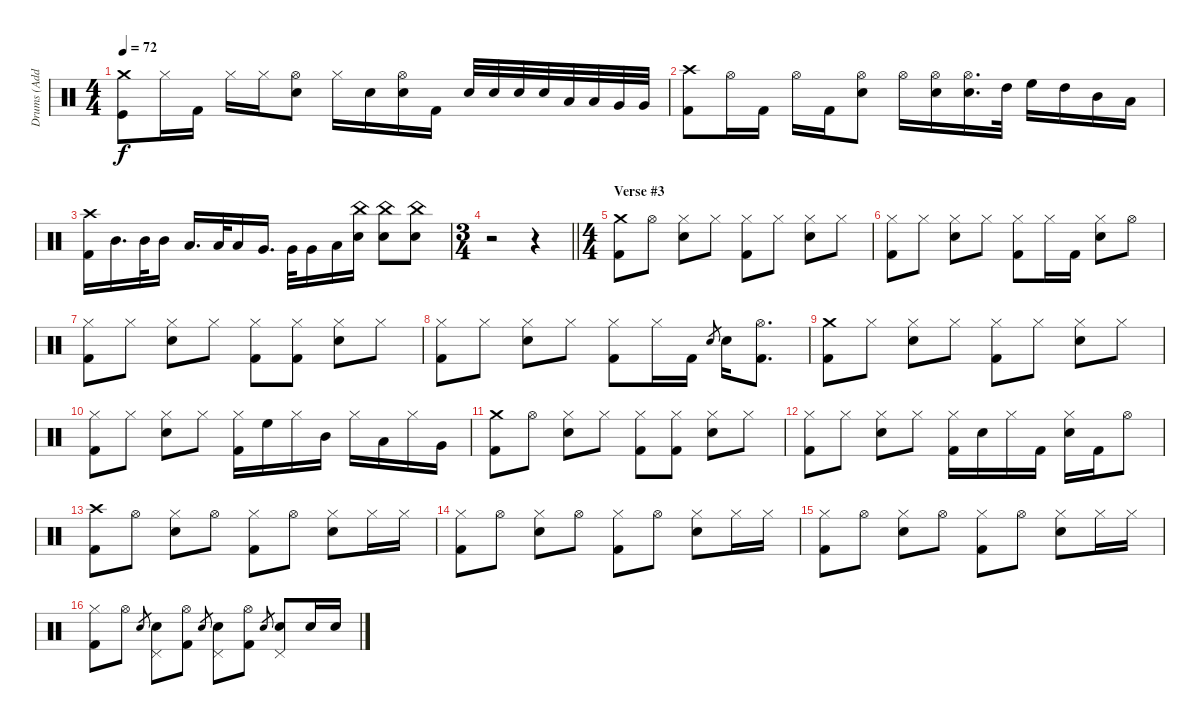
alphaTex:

\track ("Drums (Added by Leonardo_codev)" "Drums (Add") {instrument percussion}
\staff {score}
\articulation defaults
\ts (4 4)
\tempo 72
\clef neutral
\ks c
("Crash medium (hit)" "Kick (hit)").8{dy f} "Hi-Hat (closed)".16 "Kick (hit) 2".16 "Hi-Hat (closed)".16 "Hi-Hat (closed)".16 ("Hi-Hat (open)" "Electric Snare (hit)").8 "Hi-Hat (closed)".16 "Electric Snare (hit)".16 ("Hi-Hat (open)" "Electric Snare (hit)").16 "Kick (hit) 2".16 "Electric Snare (hit)".32 "Electric Snare (hit)".32 "Electric Snare (hit)".32 "Electric Snare (hit)".32 "Low Tom (hit)".32 "Low Tom (hit)".32 "Very Low Tom (hit)".32 "Very Low Tom (hit)".32 |
("Crash high (hit)" "Kick (hit) 2").8 "Hi-Hat (open)".16 "Kick (hit) 2".16 "Hi-Hat (open)".16 "Kick (hit) 2".16 ("Hi-Hat (open)" "Electric Snare (hit)").8 "Hi-Hat (open)".16 ("Hi-Hat (open)" "Electric Snare (hit)").16 ("Hi-Hat (open)" "Electric Snare (hit)").16{d} "High Tom (hit)".32 "High Floor Tom (hit)".16 "High Tom (hit)".16 "Mid Tom (hit)".16 "Low Tom (hit)".16 |
("Crash high (hit)" "Kick (hit) 2").16 "Mid Tom (hit)".16{d} "Mid Tom (hit)".32 "Mid Tom (hit)".16 "Low Tom (hit)".16{d} "Low Tom (hit)".32 "Low Tom (hit)".16 "Very Low Tom (hit)".16{d} "Very Low Tom (hit)".32 "Very Low Tom (hit)".16 "Low Floor Tom (hit)".16 ("China (hit)" "Electric Snare (hit)").16 ("China (hit)" "Electric Snare (hit)").8 ("China (hit)" "Electric Snare (hit)").8 |
\ts (3 4)
\barLineRight lightlight
r.2 r.4 |
\ts (4 4)
\section ("" "Verse #3")
("Crash medium (hit)" "Kick (hit) 2").8 "Hi-Hat (open)".8 ("Hi-Hat (closed)" "Electric Snare (hit)").8 "Hi-Hat (closed)".8 ("Hi-Hat (closed)" "Kick (hit) 2").8 "Hi-Hat (closed)".8 ("Hi-Hat (closed)" "Electric Snare (hit)").8 "Hi-Hat (closed)".8 |
("Hi-Hat (closed)" "Kick (hit) 2").8 "Hi-Hat (closed)".8 ("Hi-Hat (closed)" "Electric Snare (hit)").8 "Hi-Hat (closed)".8 ("Hi-Hat (closed)" "Kick (hit) 2").8 "Hi-Hat (closed)".16 "Kick (hit) 2".16 ("Hi-Hat (closed)" "Electric Snare (hit)").8 "Hi-Hat (open)".8 |
("Hi-Hat (closed)" "Kick (hit) 2").8 "Hi-Hat (closed)".8 ("Hi-Hat (closed)" "Electric Snare (hit)").8 "Hi-Hat (closed)".8 ("Hi-Hat (closed)" "Kick (hit) 2").8 ("Hi-Hat (closed)" "Kick (hit) 2").8 ("Hi-Hat (closed)" "Electric Snare (hit)").8 "Hi-Hat (closed)".8 |
("Hi-Hat (closed)" "Kick (hit) 2").8 "Hi-Hat (closed)".8 ("Hi-Hat (closed)" "Electric Snare (hit)").8 "Hi-Hat (closed)".8 ("Hi-Hat (closed)" "Kick (hit) 2").8 "Hi-Hat (closed)".16 "Kick (hit) 2".16 "Electric Snare (hit)".8{gr} "Electric Snare (hit)".16 ("Hi-Hat (open)" "Kick (hit) 2").8{d} |
("Crash medium (hit)" "Kick (hit) 2").8 "Hi-Hat (closed)".8 ("Hi-Hat (closed)" "Electric Snare (hit)").8 "Hi-Hat (closed)".8 ("Hi-Hat (closed)" "Kick (hit) 2").8 "Hi-Hat (closed)".8 ("Hi-Hat (closed)" "Electric Snare (hit)").8 "Hi-Hat (closed)".8 |
("Hi-Hat (closed)" "Kick (hit) 2").8 "Hi-Hat (closed)".8 ("Hi-Hat (closed)" "Electric Snare (hit)").8 "Hi-Hat (closed)".8 ("Hi-Hat (closed)" "Kick (hit) 2").16 "High Floor Tom (hit)".16 "Hi-Hat (closed)".16 "Mid Tom (hit)".16 "Hi-Hat (closed)".16 "Low Tom (hit)".16 "Hi-Hat (closed)".16 "Very Low Tom (hit)".16 |
("Crash medium (hit)" "Kick (hit) 2").8 "Hi-Hat (open)".8 ("Hi-Hat (closed)" "Electric Snare (hit)").8 "Hi-Hat (closed)".8 ("Hi-Hat (closed)" "Kick (hit) 2").8 ("Hi-Hat (closed)" "Kick (hit) 2").8 ("Hi-Hat (closed)" "Electric Snare (hit)").8 "Hi-Hat (closed)".8 |
("Hi-Hat (closed)" "Kick (hit) 2").8 "Hi-Hat (closed)".8 ("Hi-Hat (closed)" "Electric Snare (hit)").8 "Hi-Hat (closed)".8 ("Hi-Hat (closed)" "Kick (hit) 2").16 "Electric Snare (hit)".16 "Hi-Hat (closed)".16 "Kick (hit) 2".16 ("Hi-Hat (closed)" "Electric Snare (hit)").16 "Kick (hit) 2".16 "Hi-Hat (open)".8 |
("Crash high (hit)" "Kick (hit) 2").8 "Hi-Hat (open)".8 ("Hi-Hat (closed)" "Electric Snare (hit)").8 "Hi-Hat (open)".8 ("Hi-Hat (closed)" "Kick (hit) 2").8 "Hi-Hat (open)".8 ("Hi-Hat (closed)" "Electric Snare (hit)").8 "Hi-Hat (closed)".16 "Hi-Hat (closed)".16 |
("Hi-Hat (closed)" "Kick (hit) 2").8 "Hi-Hat (open)".8 ("Hi-Hat (closed)" "Electric Snare (hit)").8 "Hi-Hat (open)".8 ("Hi-Hat (closed)" "Kick (hit) 2").8 "Hi-Hat (open)".8 ("Hi-Hat (closed)" "Electric Snare (hit)").8 "Hi-Hat (closed)".16 "Hi-Hat (closed)".16 |
("Hi-Hat (closed)" "Kick (hit) 2").8 "Hi-Hat (open)".8 ("Hi-Hat (closed)" "Electric Snare (hit)").8 "Hi-Hat (open)".8 ("Hi-Hat (closed)" "Kick (hit) 2").8 "Hi-Hat (open)".8 ("Hi-Hat (closed)" "Electric Snare (hit)").8 "Hi-Hat (closed)".16 "Hi-Hat (closed)".16 |
("Hi-Hat (closed)" "Kick (hit) 2").8 "Hi-Hat (open)".8 "Electric Snare (hit)".8{gr} ("Electric Snare (hit)" "Pedal Hi-Hat (hit)").8 ("Hi-Hat (open)" "Kick (hit) 2").8 "Electric Snare (hit)".8{gr} ("Electric Snare (hit)" "Pedal Hi-Hat (hit)").8 ("Hi-Hat (open)" "Kick (hit) 2").8 "Electric Snare (hit)".8{gr} ("Electric Snare (hit)" "Pedal Hi-Hat (hit)").8 "Electric Snare (hit)".16 "Electric Snare (hit)".16
